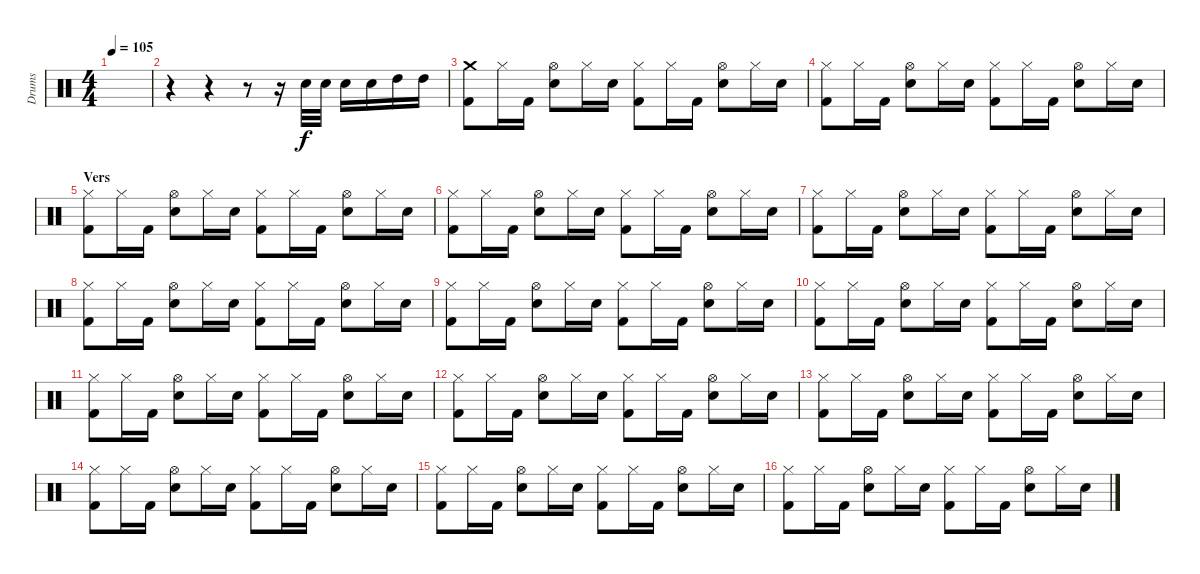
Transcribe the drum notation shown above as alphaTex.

\track ("Drums" "Drums") {instrument percussion}
\staff {score}
\articulation defaults
\ts (4 4)
\tempo 105
\clef neutral
\ks c
|
r.4 r.4 r.8 r.16 "Snare (hit) 2".32 "Snare (hit) 2".32 "Snare (hit) 2".16 "Snare (hit) 2".16 "High Tom (hit)".16 "High Tom (hit)".16 |
("Crash medium (hit)" "Kick (hit) 2").8 "Hi-Hat (closed)".16 "Kick (hit) 2".16 ("Hi-Hat (open)" "Snare (hit) 2").8 "Hi-Hat (closed)".16 "Snare (hit) 2".16 ("Hi-Hat (closed)" "Kick (hit) 2").8 "Hi-Hat (closed)".16 "Kick (hit) 2".16 ("Hi-Hat (open)" "Snare (hit) 2").8 "Hi-Hat (closed)".16 "Snare (hit) 2".16 |
("Kick (hit) 2" "Hi-Hat (closed)").8 "Hi-Hat (closed)".16 "Kick (hit) 2".16 ("Hi-Hat (open)" "Snare (hit) 2").8 "Hi-Hat (closed)".16 "Snare (hit) 2".16 ("Hi-Hat (closed)" "Kick (hit) 2").8 "Hi-Hat (closed)".16 "Kick (hit) 2".16 ("Hi-Hat (open)" "Snare (hit) 2").8 "Hi-Hat (closed)".16 "Snare (hit) 2".16 |
\section ("" "Vers")
("Kick (hit) 2" "Hi-Hat (closed)").8 "Hi-Hat (closed)".16 "Kick (hit) 2".16 ("Hi-Hat (open)" "Snare (hit) 2").8 "Hi-Hat (closed)".16 "Snare (hit) 2".16 ("Hi-Hat (closed)" "Kick (hit) 2").8 "Hi-Hat (closed)".16 "Kick (hit) 2".16 ("Hi-Hat (open)" "Snare (hit) 2").8 "Hi-Hat (closed)".16 "Snare (hit) 2".16 |
("Kick (hit) 2" "Hi-Hat (closed)").8 "Hi-Hat (closed)".16 "Kick (hit) 2".16 ("Hi-Hat (open)" "Snare (hit) 2").8 "Hi-Hat (closed)".16 "Snare (hit) 2".16 ("Hi-Hat (closed)" "Kick (hit) 2").8 "Hi-Hat (closed)".16 "Kick (hit) 2".16 ("Hi-Hat (open)" "Snare (hit) 2").8 "Hi-Hat (closed)".16 "Snare (hit) 2".16 |
("Kick (hit) 2" "Hi-Hat (closed)").8 "Hi-Hat (closed)".16 "Kick (hit) 2".16 ("Hi-Hat (open)" "Snare (hit) 2").8 "Hi-Hat (closed)".16 "Snare (hit) 2".16 ("Hi-Hat (closed)" "Kick (hit) 2").8 "Hi-Hat (closed)".16 "Kick (hit) 2".16 ("Hi-Hat (open)" "Snare (hit) 2").8 "Hi-Hat (closed)".16 "Snare (hit) 2".16 |
("Kick (hit) 2" "Hi-Hat (closed)").8 "Hi-Hat (closed)".16 "Kick (hit) 2".16 ("Hi-Hat (open)" "Snare (hit) 2").8 "Hi-Hat (closed)".16 "Snare (hit) 2".16 ("Hi-Hat (closed)" "Kick (hit) 2").8 "Hi-Hat (closed)".16 "Kick (hit) 2".16 ("Hi-Hat (open)" "Snare (hit) 2").8 "Hi-Hat (closed)".16 "Snare (hit) 2".16 |
("Kick (hit) 2" "Hi-Hat (closed)").8 "Hi-Hat (closed)".16 "Kick (hit) 2".16 ("Hi-Hat (open)" "Snare (hit) 2").8 "Hi-Hat (closed)".16 "Snare (hit) 2".16 ("Hi-Hat (closed)" "Kick (hit) 2").8 "Hi-Hat (closed)".16 "Kick (hit) 2".16 ("Hi-Hat (open)" "Snare (hit) 2").8 "Hi-Hat (closed)".16 "Snare (hit) 2".16 |
("Kick (hit) 2" "Hi-Hat (closed)").8 "Hi-Hat (closed)".16 "Kick (hit) 2".16 ("Hi-Hat (open)" "Snare (hit) 2").8 "Hi-Hat (closed)".16 "Snare (hit) 2".16 ("Hi-Hat (closed)" "Kick (hit) 2").8 "Hi-Hat (closed)".16 "Kick (hit) 2".16 ("Hi-Hat (open)" "Snare (hit) 2").8 "Hi-Hat (closed)".16 "Snare (hit) 2".16 |
("Hi-Hat (closed)" "Kick (hit) 2").8 "Hi-Hat (closed)".16 "Kick (hit) 2".16 ("Hi-Hat (open)" "Snare (hit) 2").8 "Hi-Hat (closed)".16 "Snare (hit) 2".16 ("Hi-Hat (closed)" "Kick (hit) 2").8 "Hi-Hat (closed)".16 "Kick (hit) 2".16 ("Hi-Hat (open)" "Snare (hit) 2").8 "Hi-Hat (closed)".16 "Snare (hit) 2".16 |
("Kick (hit) 2" "Hi-Hat (closed)").8 "Hi-Hat (closed)".16 "Kick (hit) 2".16 ("Hi-Hat (open)" "Snare (hit) 2").8 "Hi-Hat (closed)".16 "Snare (hit) 2".16 ("Hi-Hat (closed)" "Kick (hit) 2").8 "Hi-Hat (closed)".16 "Kick (hit) 2".16 ("Hi-Hat (open)" "Snare (hit) 2").8 "Hi-Hat (closed)".16 "Snare (hit) 2".16 |
("Kick (hit) 2" "Hi-Hat (closed)").8 "Hi-Hat (closed)".16 "Kick (hit) 2".16 ("Hi-Hat (open)" "Snare (hit) 2").8 "Hi-Hat (closed)".16 "Snare (hit) 2".16 ("Hi-Hat (closed)" "Kick (hit) 2").8 "Hi-Hat (closed)".16 "Kick (hit) 2".16 ("Hi-Hat (open)" "Snare (hit) 2").8 "Hi-Hat (closed)".16 "Snare (hit) 2".16 |
("Kick (hit) 2" "Hi-Hat (closed)").8 "Hi-Hat (closed)".16 "Kick (hit) 2".16 ("Hi-Hat (open)" "Snare (hit) 2").8 "Hi-Hat (closed)".16 "Snare (hit) 2".16 ("Hi-Hat (closed)" "Kick (hit) 2").8 "Hi-Hat (closed)".16 "Kick (hit) 2".16 ("Hi-Hat (open)" "Snare (hit) 2").8 "Hi-Hat (closed)".16 "Snare (hit) 2".16 |
("Kick (hit) 2" "Hi-Hat (closed)").8 "Hi-Hat (closed)".16 "Kick (hit) 2".16 ("Hi-Hat (open)" "Snare (hit) 2").8 "Hi-Hat (closed)".16 "Snare (hit) 2".16 ("Hi-Hat (closed)" "Kick (hit) 2").8 "Hi-Hat (closed)".16 "Kick (hit) 2".16 ("Hi-Hat (open)" "Snare (hit) 2").8 "Hi-Hat (closed)".16 "Snare (hit) 2".16 |
("Kick (hit) 2" "Hi-Hat (closed)").8 "Hi-Hat (closed)".16 "Kick (hit) 2".16 ("Hi-Hat (open)" "Snare (hit) 2").8 "Hi-Hat (closed)".16 "Snare (hit) 2".16 ("Hi-Hat (closed)" "Kick (hit) 2").8 "Hi-Hat (closed)".16 "Kick (hit) 2".16 ("Hi-Hat (open)" "Snare (hit) 2").8 "Hi-Hat (closed)".16 "Snare (hit) 2".16
